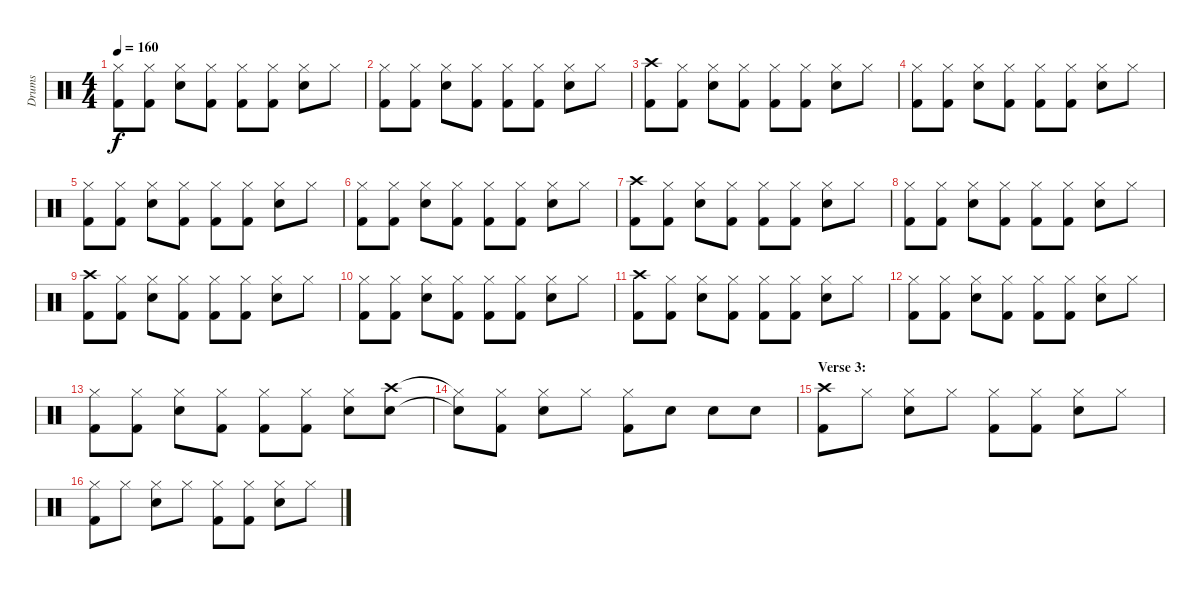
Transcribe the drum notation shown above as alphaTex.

\track ("Drums" "Drums") {instrument percussion}
\staff {score}
\articulation defaults
\ts (4 4)
\tempo 160
\clef neutral
\ks c
("Hi-Hat (closed)" "Kick (hit) 2").8{dy f} ("Hi-Hat (closed)" "Kick (hit) 2").8 ("Hi-Hat (closed)" "Electric Snare (hit)").8 ("Hi-Hat (closed)" "Kick (hit) 2").8 ("Hi-Hat (closed)" "Kick (hit) 2").8 ("Hi-Hat (closed)" "Kick (hit) 2").8 ("Hi-Hat (closed)" "Electric Snare (hit)").8 "Hi-Hat (closed)".8 |
("Hi-Hat (closed)" "Kick (hit) 2").8 ("Hi-Hat (closed)" "Kick (hit) 2").8 ("Hi-Hat (closed)" "Electric Snare (hit)").8 ("Hi-Hat (closed)" "Kick (hit) 2").8 ("Hi-Hat (closed)" "Kick (hit) 2").8 ("Hi-Hat (closed)" "Kick (hit) 2").8 ("Hi-Hat (closed)" "Electric Snare (hit)").8 "Hi-Hat (closed)".8 |
("Crash high (hit)" "Kick (hit) 2").8 ("Hi-Hat (closed)" "Kick (hit) 2").8 ("Hi-Hat (closed)" "Electric Snare (hit)").8 ("Hi-Hat (closed)" "Kick (hit) 2").8 ("Hi-Hat (closed)" "Kick (hit) 2").8 ("Hi-Hat (closed)" "Kick (hit) 2").8 ("Hi-Hat (closed)" "Electric Snare (hit)").8 "Hi-Hat (closed)".8 |
("Hi-Hat (closed)" "Kick (hit) 2").8 ("Hi-Hat (closed)" "Kick (hit) 2").8 ("Hi-Hat (closed)" "Electric Snare (hit)").8 ("Hi-Hat (closed)" "Kick (hit) 2").8 ("Hi-Hat (closed)" "Kick (hit) 2").8 ("Hi-Hat (closed)" "Kick (hit) 2").8 ("Hi-Hat (closed)" "Electric Snare (hit)").8 "Hi-Hat (closed)".8 |
("Hi-Hat (closed)" "Kick (hit) 2").8 ("Hi-Hat (closed)" "Kick (hit) 2").8 ("Hi-Hat (closed)" "Electric Snare (hit)").8 ("Hi-Hat (closed)" "Kick (hit) 2").8 ("Hi-Hat (closed)" "Kick (hit) 2").8 ("Hi-Hat (closed)" "Kick (hit) 2").8 ("Hi-Hat (closed)" "Electric Snare (hit)").8 "Hi-Hat (closed)".8 |
("Hi-Hat (closed)" "Kick (hit) 2").8 ("Hi-Hat (closed)" "Kick (hit) 2").8 ("Hi-Hat (closed)" "Electric Snare (hit)").8 ("Hi-Hat (closed)" "Kick (hit) 2").8 ("Hi-Hat (closed)" "Kick (hit) 2").8 ("Hi-Hat (closed)" "Kick (hit) 2").8 ("Hi-Hat (closed)" "Electric Snare (hit)").8 "Hi-Hat (closed)".8 |
("Crash high (hit)" "Kick (hit) 2").8 ("Hi-Hat (closed)" "Kick (hit) 2").8 ("Hi-Hat (closed)" "Electric Snare (hit)").8 ("Hi-Hat (closed)" "Kick (hit) 2").8 ("Hi-Hat (closed)" "Kick (hit) 2").8 ("Hi-Hat (closed)" "Kick (hit) 2").8 ("Hi-Hat (closed)" "Electric Snare (hit)").8 "Hi-Hat (closed)".8 |
("Hi-Hat (closed)" "Kick (hit) 2").8 ("Hi-Hat (closed)" "Kick (hit) 2").8 ("Hi-Hat (closed)" "Electric Snare (hit)").8 ("Hi-Hat (closed)" "Kick (hit) 2").8 ("Hi-Hat (closed)" "Kick (hit) 2").8 ("Hi-Hat (closed)" "Kick (hit) 2").8 ("Hi-Hat (closed)" "Electric Snare (hit)").8 "Hi-Hat (closed)".8 |
("Crash high (hit)" "Kick (hit) 2").8 ("Hi-Hat (closed)" "Kick (hit) 2").8 ("Hi-Hat (closed)" "Electric Snare (hit)").8 ("Hi-Hat (closed)" "Kick (hit) 2").8 ("Hi-Hat (closed)" "Kick (hit) 2").8 ("Hi-Hat (closed)" "Kick (hit) 2").8 ("Hi-Hat (closed)" "Electric Snare (hit)").8 "Hi-Hat (closed)".8 |
("Hi-Hat (closed)" "Kick (hit) 2").8 ("Hi-Hat (closed)" "Kick (hit) 2").8 ("Hi-Hat (closed)" "Electric Snare (hit)").8 ("Hi-Hat (closed)" "Kick (hit) 2").8 ("Hi-Hat (closed)" "Kick (hit) 2").8 ("Hi-Hat (closed)" "Kick (hit) 2").8 ("Hi-Hat (closed)" "Electric Snare (hit)").8 "Hi-Hat (closed)".8 |
("Crash high (hit)" "Kick (hit) 2").8 ("Hi-Hat (closed)" "Kick (hit) 2").8 ("Hi-Hat (closed)" "Electric Snare (hit)").8 ("Hi-Hat (closed)" "Kick (hit) 2").8 ("Hi-Hat (closed)" "Kick (hit) 2").8 ("Hi-Hat (closed)" "Kick (hit) 2").8 ("Hi-Hat (closed)" "Electric Snare (hit)").8 "Hi-Hat (closed)".8 |
("Hi-Hat (closed)" "Kick (hit) 2").8 ("Hi-Hat (closed)" "Kick (hit) 2").8 ("Hi-Hat (closed)" "Electric Snare (hit)").8 ("Hi-Hat (closed)" "Kick (hit) 2").8 ("Hi-Hat (closed)" "Kick (hit) 2").8 ("Hi-Hat (closed)" "Kick (hit) 2").8 ("Hi-Hat (closed)" "Electric Snare (hit)").8 "Hi-Hat (closed)".8 |
("Hi-Hat (closed)" "Kick (hit) 2").8 ("Hi-Hat (closed)" "Kick (hit) 2").8 ("Hi-Hat (closed)" "Electric Snare (hit)").8 ("Hi-Hat (closed)" "Kick (hit) 2").8 ("Hi-Hat (closed)" "Kick (hit) 2").8 ("Hi-Hat (closed)" "Kick (hit) 2").8 ("Hi-Hat (closed)" "Electric Snare (hit)").8 ("Crash high (hit)" "Electric Snare (hit)").8 |
("Hi-Hat (closed)"{t} "Snare (hit)"{t}).8 ("Hi-Hat (closed)" "Kick (hit) 2").8 ("Hi-Hat (closed)" "Electric Snare (hit)").8 "Hi-Hat (closed)".8 ("Hi-Hat (closed)" "Kick (hit) 2").8 "Electric Snare (hit)".8 "Electric Snare (hit)".8 "Electric Snare (hit)".8 |
\section ("" "Verse 3:")
("Crash high (hit)" "Kick (hit) 2").8 "Hi-Hat (closed)".8 ("Hi-Hat (closed)" "Electric Snare (hit)").8 "Hi-Hat (closed)".8 ("Hi-Hat (closed)" "Kick (hit) 2").8 ("Hi-Hat (closed)" "Kick (hit) 2").8 ("Hi-Hat (closed)" "Electric Snare (hit)").8 "Hi-Hat (closed)".8 |
("Hi-Hat (closed)" "Kick (hit) 2").8 "Hi-Hat (closed)".8 ("Hi-Hat (closed)" "Electric Snare (hit)").8 "Hi-Hat (closed)".8 ("Hi-Hat (closed)" "Kick (hit) 2").8 ("Hi-Hat (closed)" "Kick (hit) 2").8 ("Hi-Hat (closed)" "Electric Snare (hit)").8 "Hi-Hat (closed)".8
